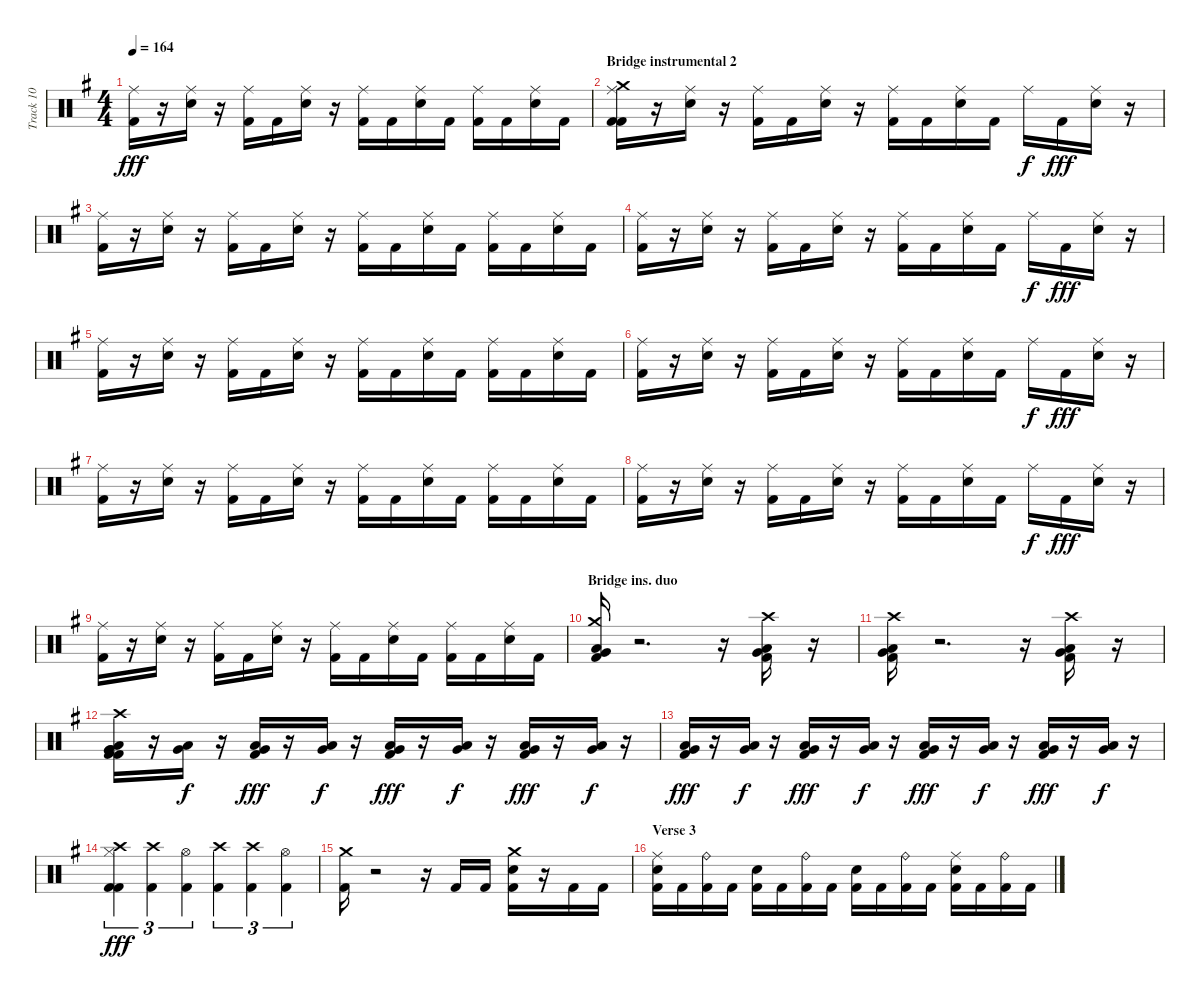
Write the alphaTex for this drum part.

\track ("Track 10" "Track 10") {instrument percussion}
\staff {score}
\articulation defaults
\ts (4 4)
\tempo 164
\clef neutral
\ks eminor
("Kick (hit) 2" "Ride (middle)").16{dy fff} r.16 ("Electric Snare (hit)" "Ride (middle)").16 r.16 ("Kick (hit) 2" "Ride (middle)").16 "Kick (hit) 2".16 ("Electric Snare (hit)" "Ride (middle)").16 r.16 ("Kick (hit) 2" "Ride (middle)").16 "Kick (hit) 2".16 ("Electric Snare (hit)" "Ride (middle)").16 "Kick (hit) 2".16 ("Kick (hit) 2" "Ride (middle)").16 "Kick (hit) 2".16 ("Electric Snare (hit)" "Ride (middle)").16 "Kick (hit) 2".16 |
\section ("" "Bridge instrumental 2")
("Kick (hit) 2" "Kick (hit) 2" "Ride (middle)" "Crash medium (hit)").16 r.16 ("Electric Snare (hit)" "Ride (middle)").16 r.16 ("Kick (hit) 2" "Ride (middle)").16 "Kick (hit) 2".16 ("Electric Snare (hit)" "Ride (middle)").16 r.16 ("Kick (hit) 2" "Ride (middle)").16 "Kick (hit) 2".16 ("Electric Snare (hit)" "Ride (middle)").16 "Kick (hit) 2".16 "Ride (middle)".16{dy f} "Kick (hit) 2".16{dy fff} ("Electric Snare (hit)" "Ride (middle)").16 r.16 |
("Kick (hit) 2" "Ride (middle)").16 r.16 ("Electric Snare (hit)" "Ride (middle)").16 r.16 ("Kick (hit) 2" "Ride (middle)").16 "Kick (hit) 2".16 ("Electric Snare (hit)" "Ride (middle)").16 r.16 ("Kick (hit) 2" "Ride (middle)").16 "Kick (hit) 2".16 ("Electric Snare (hit)" "Ride (middle)").16 "Kick (hit) 2".16 ("Kick (hit) 2" "Ride (middle)").16 "Kick (hit) 2".16 ("Electric Snare (hit)" "Ride (middle)").16 "Kick (hit) 2".16 |
("Kick (hit) 2" "Ride (middle)").16 r.16 ("Electric Snare (hit)" "Ride (middle)").16 r.16 ("Kick (hit) 2" "Ride (middle)").16 "Kick (hit) 2".16 ("Electric Snare (hit)" "Ride (middle)").16 r.16 ("Kick (hit) 2" "Ride (middle)").16 "Kick (hit) 2".16 ("Electric Snare (hit)" "Ride (middle)").16 "Kick (hit) 2".16 "Ride (middle)".16{dy f} "Kick (hit) 2".16{dy fff} ("Electric Snare (hit)" "Ride (middle)").16 r.16 |
("Kick (hit) 2" "Ride (middle)").16 r.16 ("Electric Snare (hit)" "Ride (middle)").16 r.16 ("Kick (hit) 2" "Ride (middle)").16 "Kick (hit) 2".16 ("Electric Snare (hit)" "Ride (middle)").16 r.16 ("Kick (hit) 2" "Ride (middle)").16 "Kick (hit) 2".16 ("Electric Snare (hit)" "Ride (middle)").16 "Kick (hit) 2".16 ("Kick (hit) 2" "Ride (middle)").16 "Kick (hit) 2".16 ("Electric Snare (hit)" "Ride (middle)").16 "Kick (hit) 2".16 |
("Kick (hit) 2" "Ride (middle)").16 r.16 ("Electric Snare (hit)" "Ride (middle)").16 r.16 ("Kick (hit) 2" "Ride (middle)").16 "Kick (hit) 2".16 ("Electric Snare (hit)" "Ride (middle)").16 r.16 ("Kick (hit) 2" "Ride (middle)").16 "Kick (hit) 2".16 ("Electric Snare (hit)" "Ride (middle)").16 "Kick (hit) 2".16 "Ride (middle)".16{dy f} "Kick (hit) 2".16{dy fff} ("Electric Snare (hit)" "Ride (middle)").16 r.16 |
("Kick (hit) 2" "Ride (middle)").16 r.16 ("Electric Snare (hit)" "Ride (middle)").16 r.16 ("Kick (hit) 2" "Ride (middle)").16 "Kick (hit) 2".16 ("Electric Snare (hit)" "Ride (middle)").16 r.16 ("Kick (hit) 2" "Ride (middle)").16 "Kick (hit) 2".16 ("Electric Snare (hit)" "Ride (middle)").16 "Kick (hit) 2".16 ("Kick (hit) 2" "Ride (middle)").16 "Kick (hit) 2".16 ("Electric Snare (hit)" "Ride (middle)").16 "Kick (hit) 2".16 |
("Kick (hit) 2" "Ride (middle)").16 r.16 ("Electric Snare (hit)" "Ride (middle)").16 r.16 ("Kick (hit) 2" "Ride (middle)").16 "Kick (hit) 2".16 ("Electric Snare (hit)" "Ride (middle)").16 r.16 ("Kick (hit) 2" "Ride (middle)").16 "Kick (hit) 2".16 ("Electric Snare (hit)" "Ride (middle)").16 "Kick (hit) 2".16 "Ride (middle)".16{dy f} "Kick (hit) 2".16{dy fff} ("Electric Snare (hit)" "Ride (middle)").16 r.16 |
("Kick (hit) 2" "Ride (middle)").16 r.16 ("Electric Snare (hit)" "Ride (middle)").16 r.16 ("Kick (hit) 2" "Ride (middle)").16 "Kick (hit) 2".16 ("Electric Snare (hit)" "Ride (middle)").16 r.16 ("Kick (hit) 2" "Ride (middle)").16 "Kick (hit) 2".16 ("Electric Snare (hit)" "Ride (middle)").16 "Kick (hit) 2".16 ("Kick (hit) 2" "Ride (middle)").16 "Kick (hit) 2".16 ("Electric Snare (hit)" "Ride (middle)").16 "Kick (hit) 2".16 |
\section ("" "Bridge ins. duo")
("Kick (hit) 2" "Crash medium (hit)" "Low Floor Tom (hit)" "Very Low Tom (hit)").16 r.2{d} r.16 ("Kick (hit) 2" "Crash high (hit)" "Very Low Tom (hit)" "Low Floor Tom (hit)").16 r.16 |
("Kick (hit) 2" "Low Floor Tom (hit)" "Very Low Tom (hit)" "Crash high (hit)").16 r.2{d} r.16 ("Kick (hit) 2" "Crash high (hit)" "Very Low Tom (hit)" "Low Floor Tom (hit)").16 r.16 |
("Kick (hit) 2" "Kick (hit) 2" "Low Floor Tom (hit)" "Crash high (hit)" "Very Low Tom (hit)" "Very Low Tom (hit)").16 r.16 ("Very Low Tom (hit)" "Low Floor Tom (hit)").16{dy f} r.16 ("Kick (hit) 2" "Low Floor Tom (hit)" "Very Low Tom (hit)").16{dy fff} r.16 ("Very Low Tom (hit)" "Low Floor Tom (hit)").16{dy f} r.16 ("Kick (hit) 2" "Very Low Tom (hit)" "Low Floor Tom (hit)").16{dy fff} r.16 ("Very Low Tom (hit)" "Low Floor Tom (hit)").16{dy f} r.16 ("Kick (hit) 2" "Low Floor Tom (hit)" "Very Low Tom (hit)").16{dy fff} r.16 ("Very Low Tom (hit)" "Low Floor Tom (hit)").16{dy f} r.16 |
("Kick (hit) 2" "Low Floor Tom (hit)" "Very Low Tom (hit)").16{dy fff} r.16 ("Low Floor Tom (hit)" "Very Low Tom (hit)").16{dy f} r.16 ("Kick (hit) 2" "Low Floor Tom (hit)" "Very Low Tom (hit)").16{dy fff} r.16 ("Very Low Tom (hit)" "Low Floor Tom (hit)").16{dy f} r.16 ("Kick (hit) 2" "Low Floor Tom (hit)" "Very Low Tom (hit)").16{dy fff} r.16 ("Low Floor Tom (hit)" "Very Low Tom (hit)").16{dy f} r.16 ("Kick (hit) 2" "Very Low Tom (hit)" "Low Floor Tom (hit)").16{dy fff} r.16 ("Low Floor Tom (hit)" "Very Low Tom (hit)").16{dy f} r.16 |
("Kick (hit) 2" "Kick (hit) 2" "Crash high (hit)" "Hi-Hat (closed)").4{tu (3 2) dy fff} ("Kick (hit) 2" "Crash high (hit)").4{tu (3 2)} ("Kick (hit) 2" "Hi-Hat (open)").4{tu (3 2)} ("Kick (hit) 2" "Crash high (hit)").4{tu (3 2)} ("Kick (hit) 2" "Crash high (hit)").4{tu (3 2)} ("Kick (hit) 2" "Hi-Hat (open)").4{tu (3 2)} |
("Kick (hit) 2" "Crash medium (hit)").16 r.2 r.16 "Kick (hit) 2".16 "Kick (hit) 2".16 ("Electric Snare (hit)" "Kick (hit) 2" "Crash medium (hit)").16 r.16 "Kick (hit) 2".16 "Kick (hit) 2".16 |
\section ("" "Verse 3")
("Kick (hit) 2" "Electric Snare (hit)" "Ride (middle)").16 "Kick (hit) 2".16 ("Kick (hit) 2" "Ride (bell)").16 "Kick (hit) 2".16 ("Electric Snare (hit)" "Kick (hit) 2").16 "Kick (hit) 2".16 ("Kick (hit) 2" "Ride (bell)").16 "Kick (hit) 2".16 ("Electric Snare (hit)" "Kick (hit) 2").16 "Kick (hit) 2".16 ("Kick (hit) 2" "Ride (bell)").16 "Kick (hit) 2".16 ("Kick (hit) 2" "Electric Snare (hit)" "Ride (middle)").16 "Kick (hit) 2".16 ("Kick (hit) 2" "Ride (bell)").16 "Kick (hit) 2".16
